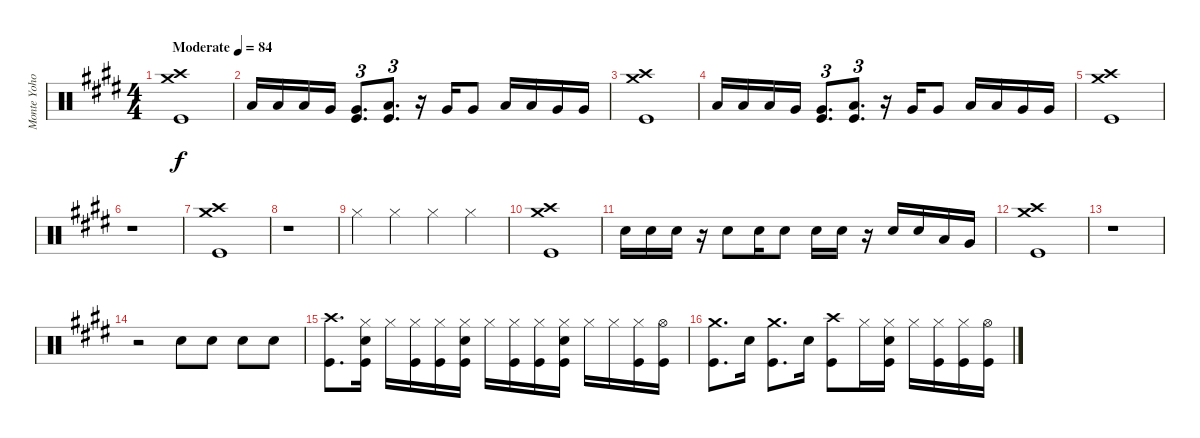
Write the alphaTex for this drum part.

\track ("Monte Yoho Drums" "Monte Yoho") {instrument percussion}
\staff {score}
\articulation defaults
\ts (4 4)
\tempo (84 "Moderate")
\clef neutral
\ks e
("Crash high (hit)" "Crash medium (hit)" "Kick (hit)").1{dy f} |
"Low Tom (hit)".16 "Low Tom (hit)".16 "Low Tom (hit)".16 "Very Low Tom (hit)".16 ("Very Low Tom (hit)" "Kick (hit)").8{d tu (3 2)} ("Low Floor Tom (hit)" "Kick (hit)").8{d tu (3 2)} r.16 "Very Low Tom (hit)".16 "Very Low Tom (hit)".8 "Low Tom (hit)".16 "Low Tom (hit)".16 "Very Low Tom (hit)".16 "Very Low Tom (hit)".16 |
("Crash high (hit)" "Crash medium (hit)" "Kick (hit)").1 |
"Low Tom (hit)".16 "Low Tom (hit)".16 "Low Tom (hit)".16 "Very Low Tom (hit)".16 ("Very Low Tom (hit)" "Kick (hit)").8{d tu (3 2)} ("Low Floor Tom (hit)" "Kick (hit)").8{d tu (3 2)} r.16 "Very Low Tom (hit)".16 "Very Low Tom (hit)".8 "Low Tom (hit)".16 "Low Tom (hit)".16 "Very Low Tom (hit)".16 "Very Low Tom (hit)".16 |
("Crash high (hit)" "Crash medium (hit)" "Kick (hit)").1 |
r.1 |
("Crash high (hit)" "Crash medium (hit)" "Kick (hit)").1 |
r.1 |
"Hi-Hat (closed)".4 "Hi-Hat (closed)".4 "Hi-Hat (closed)".4 "Hi-Hat (closed)".4 |
("Crash high (hit)" "Crash medium (hit)" "Kick (hit)").1 |
"Snare (hit) 2".16 "Snare (hit) 2".16 "Snare (hit) 2".16 r.16 "Snare (hit) 2".8 "Snare (hit) 2".16 "Snare (hit) 2".8 "Snare (hit) 2".16 "Snare (hit) 2".16 r.16 "Snare (hit) 2".16 "Snare (hit) 2".16 "Low Tom (hit)".16 "Very Low Tom (hit)".16 |
("Crash high (hit)" "Crash medium (hit)" "Kick (hit)").1 |
r.1 |
r.2 "Snare (hit) 2".8 "Snare (hit) 2".8 "Snare (hit) 2".8 "Snare (hit) 2".8 |
("Crash high (hit)" "Kick (hit)").8{d} ("Hi-Hat (closed)" "Snare (hit) 2" "Kick (hit)").16 "Hi-Hat (closed)".16 ("Hi-Hat (closed)" "Kick (hit)").16 ("Hi-Hat (closed)" "Kick (hit)").16 ("Hi-Hat (closed)" "Snare (hit) 2" "Kick (hit)").16 "Hi-Hat (closed)".16 ("Hi-Hat (closed)" "Kick (hit)").16 ("Hi-Hat (closed)" "Kick (hit)").16 ("Hi-Hat (closed)" "Snare (hit) 2" "Kick (hit)").16 "Hi-Hat (closed)".16 "Hi-Hat (closed)".16 ("Hi-Hat (closed)" "Kick (hit)").16 ("Hi-Hat (open)" "Kick (hit)").16 |
("Crash medium (hit)" "Kick (hit)").8{d} "Snare (hit) 2".16 ("Crash medium (hit)" "Kick (hit)").8{d} "Snare (hit) 2".16 ("Crash high (hit)" "Kick (hit)").8 "Hi-Hat (closed)".16 ("Hi-Hat (closed)" "Snare (hit) 2" "Kick (hit)").16 "Hi-Hat (closed)".16 ("Hi-Hat (closed)" "Kick (hit)").16 ("Hi-Hat (closed)" "Kick (hit)").16 ("Hi-Hat (open)" "Kick (hit)").16
